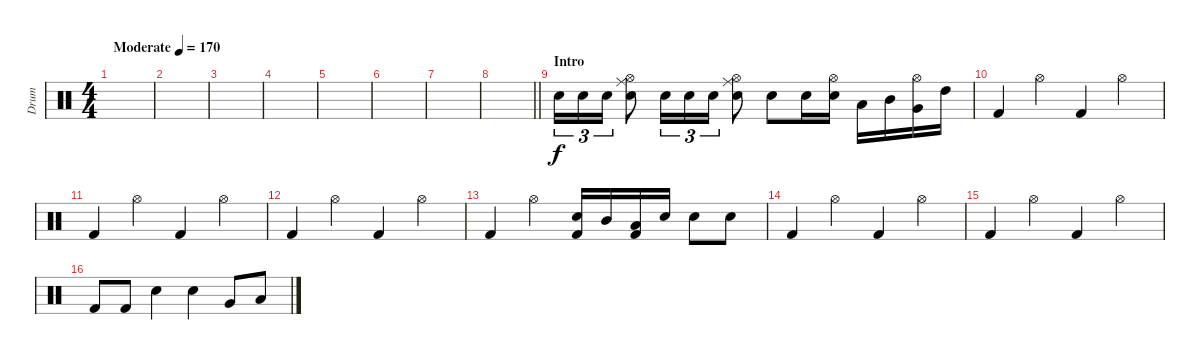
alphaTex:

\track ("Drum" "Drum") {instrument percussion}
\staff {score}
\articulation defaults
\ts (4 4)
\tempo (170 "Moderate")
\clef neutral
\ks c
|
|
|
|
|
|
|
\barLineRight lightlight
|
\section ("" "Intro")
"Electric Snare (hit)".16{tu (3 2)} "Electric Snare (hit)".16{tu (3 2)} "Electric Snare (hit)".16{tu (3 2)} ("Hi-Hat (open)" "Ride (middle)" "Electric Snare (hit)").8 "Electric Snare (hit)".16{tu (3 2)} "Electric Snare (hit)".16{tu (3 2)} "Electric Snare (hit)".16{tu (3 2)} ("Hi-Hat (open)" "Ride (middle)" "Electric Snare (hit)").8 "Electric Snare (hit)".8 "Electric Snare (hit)".16 ("Hi-Hat (open)" "Electric Snare (hit)").16 "Low Tom (hit)".16 "Mid Tom (hit)".16 ("Hi-Hat (open)" "Very Low Tom (hit)").16 "High Tom (hit)".16 |
"Kick (hit) 2".4 "Hi-Hat (open)".4 "Kick (hit) 2".4 "Hi-Hat (open)".4 |
"Kick (hit) 2".4 "Hi-Hat (open)".4 "Kick (hit) 2".4 "Hi-Hat (open)".4 |
"Kick (hit) 2".4 "Hi-Hat (open)".4 "Kick (hit) 2".4 "Hi-Hat (open)".4 |
"Kick (hit) 2".4 "Hi-Hat (open)".4 ("Electric Snare (hit)" "Kick (hit) 2").16 "Mid Tom (hit)".16 ("Low Tom (hit)" "Kick (hit) 2").16 "Electric Snare (hit)".16 "Electric Snare (hit)".8 "Electric Snare (hit)".8 |
"Kick (hit) 2".4 "Hi-Hat (open)".4 "Kick (hit) 2".4 "Hi-Hat (open)".4 |
"Kick (hit) 2".4 "Hi-Hat (open)".4 "Kick (hit) 2".4 "Hi-Hat (open)".4 |
"Kick (hit) 2".8 "Kick (hit) 2".8 "Electric Snare (hit)".4 "Electric Snare (hit)".4 "Very Low Tom (hit)".8 "Low Tom (hit)".8
